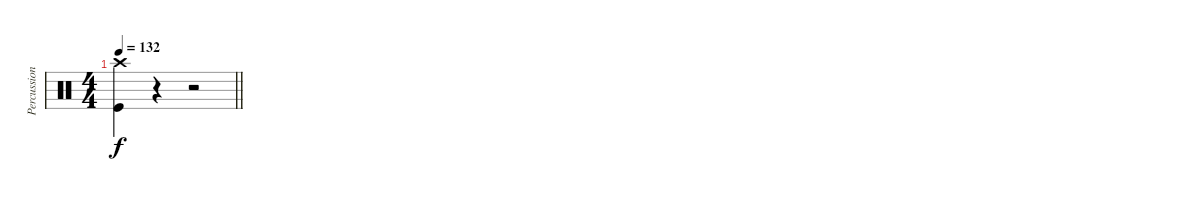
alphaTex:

\track ("Percussion" "Percussion") {instrument percussion}
\staff {score}
\articulation defaults
\ts (4 4)
\tempo 132
\clef neutral
\barLineRight lightlight
\ks c
("Crash high (hit)" "Kick (hit)").4{dy f} r.4 r.2
